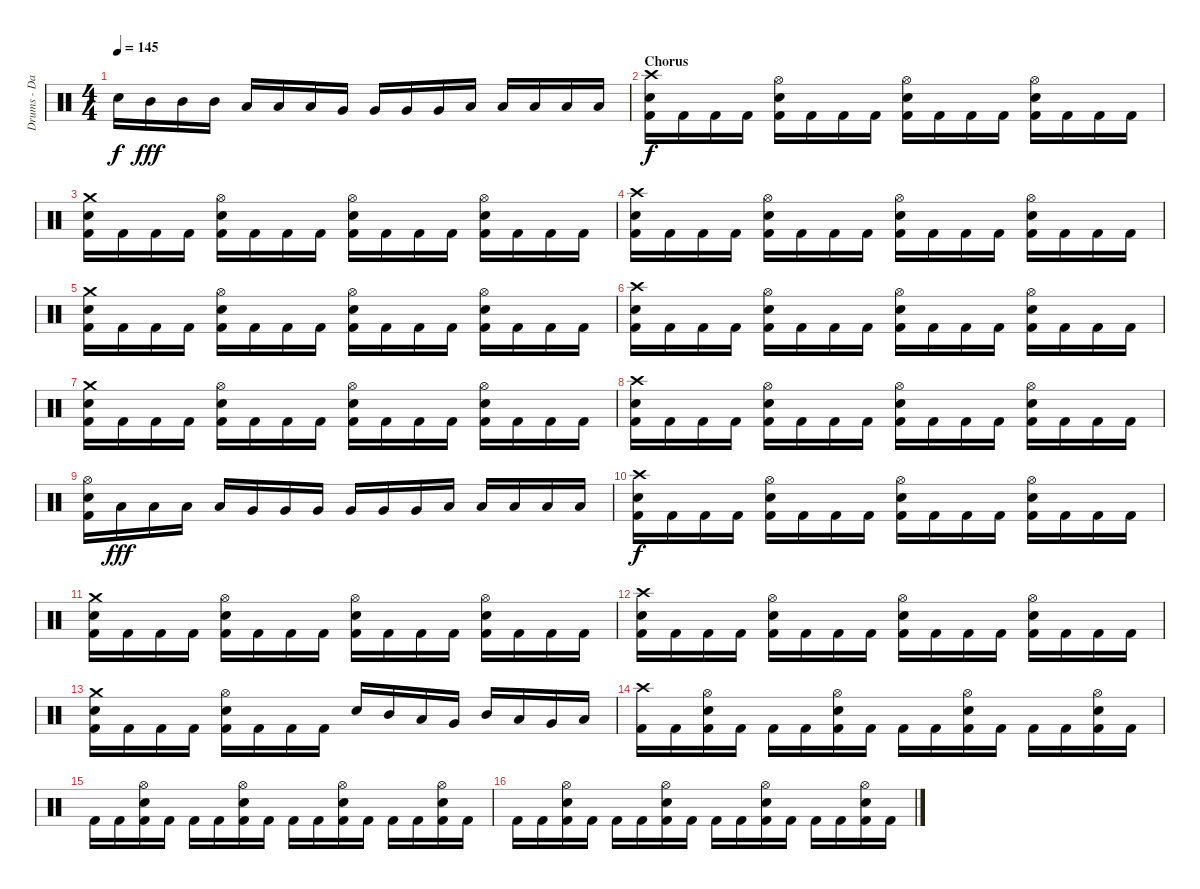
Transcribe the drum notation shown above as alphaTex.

\track ("Drums - Daniel Zimmermann" "Drums - Da") {instrument percussion}
\staff {score}
\articulation defaults
\ts (4 4)
\tempo 145
\clef neutral
\ks c "Electric Snare (hit)".16{dy f} "Mid Tom (hit)".16{dy fff} "Mid Tom (hit)".16 "Mid Tom (hit)".16 "Low Tom (hit)".16 "Low Tom (hit)".16 "Low Tom (hit)".16 "Very Low Tom (hit)".16 "Very Low Tom (hit)".16 "Very Low Tom (hit)".16 "Very Low Tom (hit)".16 "Low Floor Tom (hit)".16 "Low Floor Tom (hit)".16 "Low Floor Tom (hit)".16 "Low Floor Tom (hit)".16 "Low Floor Tom (hit)".16
|
\section ("" "Chorus")
("Kick (hit) 2" "Electric Snare (hit)" "Crash high (hit)").16{dy f} "Kick (hit) 2".16 "Kick (hit) 2".16 "Kick (hit) 2".16 ("Kick (hit) 2" "Electric Snare (hit)" "Hi-Hat (open)").16 "Kick (hit) 2".16 "Kick (hit) 2".16 "Kick (hit) 2".16 ("Kick (hit) 2" "Electric Snare (hit)" "Hi-Hat (open)").16 "Kick (hit) 2".16 "Kick (hit) 2".16 "Kick (hit) 2".16 ("Kick (hit) 2" "Electric Snare (hit)" "Hi-Hat (open)").16 "Kick (hit) 2".16 "Kick (hit) 2".16 "Kick (hit) 2".16 |
("Kick (hit) 2" "Electric Snare (hit)" "Crash medium (hit)").16 "Kick (hit) 2".16 "Kick (hit) 2".16 "Kick (hit) 2".16 ("Kick (hit) 2" "Electric Snare (hit)" "Hi-Hat (open)").16 "Kick (hit) 2".16 "Kick (hit) 2".16 "Kick (hit) 2".16 ("Kick (hit) 2" "Electric Snare (hit)" "Hi-Hat (open)").16 "Kick (hit) 2".16 "Kick (hit) 2".16 "Kick (hit) 2".16 ("Kick (hit) 2" "Electric Snare (hit)" "Hi-Hat (open)").16 "Kick (hit) 2".16 "Kick (hit) 2".16 "Kick (hit) 2".16 |
("Kick (hit) 2" "Electric Snare (hit)" "Crash high (hit)").16 "Kick (hit) 2".16 "Kick (hit) 2".16 "Kick (hit) 2".16 ("Kick (hit) 2" "Electric Snare (hit)" "Hi-Hat (open)").16 "Kick (hit) 2".16 "Kick (hit) 2".16 "Kick (hit) 2".16 ("Kick (hit) 2" "Electric Snare (hit)" "Hi-Hat (open)").16 "Kick (hit) 2".16 "Kick (hit) 2".16 "Kick (hit) 2".16 ("Kick (hit) 2" "Electric Snare (hit)" "Hi-Hat (open)").16 "Kick (hit) 2".16 "Kick (hit) 2".16 "Kick (hit) 2".16 |
("Kick (hit) 2" "Electric Snare (hit)" "Crash medium (hit)").16 "Kick (hit) 2".16 "Kick (hit) 2".16 "Kick (hit) 2".16 ("Kick (hit) 2" "Electric Snare (hit)" "Hi-Hat (open)").16 "Kick (hit) 2".16 "Kick (hit) 2".16 "Kick (hit) 2".16 ("Kick (hit) 2" "Electric Snare (hit)" "Hi-Hat (open)").16 "Kick (hit) 2".16 "Kick (hit) 2".16 "Kick (hit) 2".16 ("Kick (hit) 2" "Electric Snare (hit)" "Hi-Hat (open)").16 "Kick (hit) 2".16 "Kick (hit) 2".16 "Kick (hit) 2".16 |
("Kick (hit) 2" "Electric Snare (hit)" "Crash high (hit)").16 "Kick (hit) 2".16 "Kick (hit) 2".16 "Kick (hit) 2".16 ("Kick (hit) 2" "Electric Snare (hit)" "Hi-Hat (open)").16 "Kick (hit) 2".16 "Kick (hit) 2".16 "Kick (hit) 2".16 ("Kick (hit) 2" "Electric Snare (hit)" "Hi-Hat (open)").16 "Kick (hit) 2".16 "Kick (hit) 2".16 "Kick (hit) 2".16 ("Kick (hit) 2" "Electric Snare (hit)" "Hi-Hat (open)").16 "Kick (hit) 2".16 "Kick (hit) 2".16 "Kick (hit) 2".16 |
("Kick (hit) 2" "Electric Snare (hit)" "Crash medium (hit)").16 "Kick (hit) 2".16 "Kick (hit) 2".16 "Kick (hit) 2".16 ("Kick (hit) 2" "Electric Snare (hit)" "Hi-Hat (open)").16 "Kick (hit) 2".16 "Kick (hit) 2".16 "Kick (hit) 2".16 ("Kick (hit) 2" "Electric Snare (hit)" "Hi-Hat (open)").16 "Kick (hit) 2".16 "Kick (hit) 2".16 "Kick (hit) 2".16 ("Kick (hit) 2" "Electric Snare (hit)" "Hi-Hat (open)").16 "Kick (hit) 2".16 "Kick (hit) 2".16 "Kick (hit) 2".16 |
("Kick (hit) 2" "Electric Snare (hit)" "Crash high (hit)").16 "Kick (hit) 2".16 "Kick (hit) 2".16 "Kick (hit) 2".16 ("Kick (hit) 2" "Electric Snare (hit)" "Hi-Hat (open)").16 "Kick (hit) 2".16 "Kick (hit) 2".16 "Kick (hit) 2".16 ("Kick (hit) 2" "Electric Snare (hit)" "Hi-Hat (open)").16 "Kick (hit) 2".16 "Kick (hit) 2".16 "Kick (hit) 2".16 ("Kick (hit) 2" "Electric Snare (hit)" "Hi-Hat (open)").16 "Kick (hit) 2".16 "Kick (hit) 2".16 "Kick (hit) 2".16 |
("Kick (hit) 2" "Electric Snare (hit)" "Hi-Hat (open)").16 "Low Tom (hit)".16{dy fff} "Low Tom (hit)".16 "Low Tom (hit)".16 "Low Tom (hit)".16 "Very Low Tom (hit)".16 "Very Low Tom (hit)".16 "Very Low Tom (hit)".16 "Very Low Tom (hit)".16 "Very Low Tom (hit)".16 "Very Low Tom (hit)".16 "Low Floor Tom (hit)".16 "Low Floor Tom (hit)".16 "Low Floor Tom (hit)".16 "Low Floor Tom (hit)".16 "Low Floor Tom (hit)".16 |
("Kick (hit) 2" "Electric Snare (hit)" "Crash high (hit)").16{dy f} "Kick (hit) 2".16 "Kick (hit) 2".16 "Kick (hit) 2".16 ("Kick (hit) 2" "Electric Snare (hit)" "Hi-Hat (open)").16 "Kick (hit) 2".16 "Kick (hit) 2".16 "Kick (hit) 2".16 ("Kick (hit) 2" "Electric Snare (hit)" "Hi-Hat (open)").16 "Kick (hit) 2".16 "Kick (hit) 2".16 "Kick (hit) 2".16 ("Kick (hit) 2" "Electric Snare (hit)" "Hi-Hat (open)").16 "Kick (hit) 2".16 "Kick (hit) 2".16 "Kick (hit) 2".16 |
("Kick (hit) 2" "Electric Snare (hit)" "Crash medium (hit)").16 "Kick (hit) 2".16 "Kick (hit) 2".16 "Kick (hit) 2".16 ("Kick (hit) 2" "Electric Snare (hit)" "Hi-Hat (open)").16 "Kick (hit) 2".16 "Kick (hit) 2".16 "Kick (hit) 2".16 ("Kick (hit) 2" "Electric Snare (hit)" "Hi-Hat (open)").16 "Kick (hit) 2".16 "Kick (hit) 2".16 "Kick (hit) 2".16 ("Kick (hit) 2" "Electric Snare (hit)" "Hi-Hat (open)").16 "Kick (hit) 2".16 "Kick (hit) 2".16 "Kick (hit) 2".16 |
("Kick (hit) 2" "Electric Snare (hit)" "Crash high (hit)").16 "Kick (hit) 2".16 "Kick (hit) 2".16 "Kick (hit) 2".16 ("Kick (hit) 2" "Electric Snare (hit)" "Hi-Hat (open)").16 "Kick (hit) 2".16 "Kick (hit) 2".16 "Kick (hit) 2".16 ("Kick (hit) 2" "Electric Snare (hit)" "Hi-Hat (open)").16 "Kick (hit) 2".16 "Kick (hit) 2".16 "Kick (hit) 2".16 ("Kick (hit) 2" "Electric Snare (hit)" "Hi-Hat (open)").16 "Kick (hit) 2".16 "Kick (hit) 2".16 "Kick (hit) 2".16 |
("Kick (hit) 2" "Electric Snare (hit)" "Crash medium (hit)").16 "Kick (hit) 2".16 "Kick (hit) 2".16 "Kick (hit) 2".16 ("Kick (hit) 2" "Electric Snare (hit)" "Hi-Hat (open)").16 "Kick (hit) 2".16 "Kick (hit) 2".16 "Kick (hit) 2".16 "Electric Snare (hit)".16 "Mid Tom (hit)".16 "Low Tom (hit)".16 "Very Low Tom (hit)".16 "Mid Tom (hit)".16 "Low Tom (hit)".16 "Very Low Tom (hit)".16 "Low Floor Tom (hit)".16 |
("Kick (hit) 2" "Crash high (hit)").16 "Kick (hit) 2".16 ("Kick (hit) 2" "Electric Snare (hit)" "Hi-Hat (open)").16 "Kick (hit) 2".16 "Kick (hit) 2".16 "Kick (hit) 2".16 ("Kick (hit) 2" "Electric Snare (hit)" "Hi-Hat (open)").16 "Kick (hit) 2".16 "Kick (hit) 2".16 "Kick (hit) 2".16 ("Kick (hit) 2" "Electric Snare (hit)" "Hi-Hat (open)").16 "Kick (hit) 2".16 "Kick (hit) 2".16 "Kick (hit) 2".16 ("Kick (hit) 2" "Electric Snare (hit)" "Hi-Hat (open)").16 "Kick (hit) 2".16 |
"Kick (hit) 2".16 "Kick (hit) 2".16 ("Kick (hit) 2" "Electric Snare (hit)" "Hi-Hat (open)").16 "Kick (hit) 2".16 "Kick (hit) 2".16 "Kick (hit) 2".16 ("Kick (hit) 2" "Electric Snare (hit)" "Hi-Hat (open)").16 "Kick (hit) 2".16 "Kick (hit) 2".16 "Kick (hit) 2".16 ("Kick (hit) 2" "Electric Snare (hit)" "Hi-Hat (open)").16 "Kick (hit) 2".16 "Kick (hit) 2".16 "Kick (hit) 2".16 ("Kick (hit) 2" "Electric Snare (hit)" "Hi-Hat (open)").16 "Kick (hit) 2".16 |
"Kick (hit) 2".16 "Kick (hit) 2".16 ("Kick (hit) 2" "Electric Snare (hit)" "Hi-Hat (open)").16 "Kick (hit) 2".16 "Kick (hit) 2".16 "Kick (hit) 2".16 ("Kick (hit) 2" "Electric Snare (hit)" "Hi-Hat (open)").16 "Kick (hit) 2".16 "Kick (hit) 2".16 "Kick (hit) 2".16 ("Kick (hit) 2" "Electric Snare (hit)" "Hi-Hat (open)").16 "Kick (hit) 2".16 "Kick (hit) 2".16 "Kick (hit) 2".16 ("Kick (hit) 2" "Electric Snare (hit)" "Hi-Hat (open)").16 "Kick (hit) 2".16
